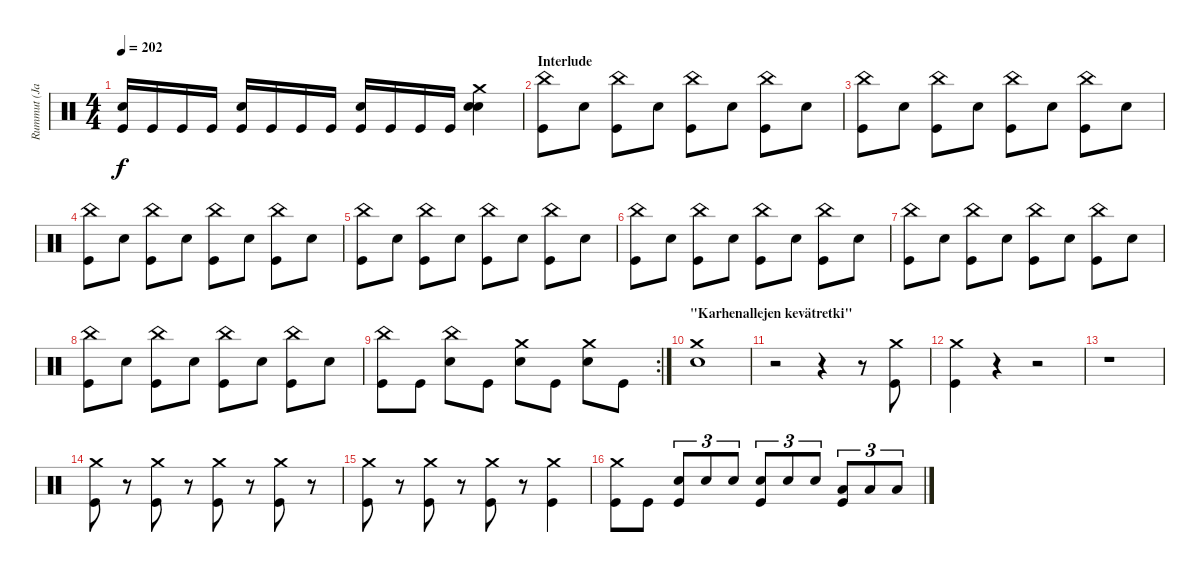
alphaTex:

\track ("Rummut (Janne)" "Rummut (Ja") {instrument percussion}
\staff {score}
\articulation defaults
\ts (4 4)
\tempo 202
\clef neutral
\ks c
("Snare (hit) 2" "Kick (hit)").16{dy f} "Kick (hit)".16 "Kick (hit)".16 "Kick (hit)".16 ("Snare (hit) 2" "Kick (hit)").16 "Kick (hit)".16 "Kick (hit)".16 "Kick (hit)".16 ("Snare (hit) 2" "Kick (hit)").16 "Kick (hit)".16 "Kick (hit)".16 "Kick (hit)".16 ("Crash medium (hit)" "Snare (hit) 2" "Snare (hit) 2").4 |
\section ("" "Interlude")
("China (hit)" "Kick (hit)").8 "Snare (hit) 2".8 ("China (hit)" "Kick (hit)").8 "Snare (hit) 2".8 ("China (hit)" "Kick (hit)").8 "Snare (hit) 2".8 ("China (hit)" "Kick (hit)").8 "Snare (hit) 2".8 |
("China (hit)" "Kick (hit)").8 "Snare (hit) 2".8 ("China (hit)" "Kick (hit)").8 "Snare (hit) 2".8 ("China (hit)" "Kick (hit)").8 "Snare (hit) 2".8 ("China (hit)" "Kick (hit)").8 "Snare (hit) 2".8 |
("China (hit)" "Kick (hit)").8 "Snare (hit) 2".8 ("China (hit)" "Kick (hit)").8 "Snare (hit) 2".8 ("China (hit)" "Kick (hit)").8 "Snare (hit) 2".8 ("China (hit)" "Kick (hit)").8 "Snare (hit) 2".8 |
("China (hit)" "Kick (hit)").8 "Snare (hit) 2".8 ("China (hit)" "Kick (hit)").8 "Snare (hit) 2".8 ("China (hit)" "Kick (hit)").8 "Snare (hit) 2".8 ("China (hit)" "Kick (hit)").8 "Snare (hit) 2".8 |
("China (hit)" "Kick (hit)").8 "Snare (hit) 2".8 ("China (hit)" "Kick (hit)").8 "Snare (hit) 2".8 ("China (hit)" "Kick (hit)").8 "Snare (hit) 2".8 ("China (hit)" "Kick (hit)").8 "Snare (hit) 2".8 |
("China (hit)" "Kick (hit)").8 "Snare (hit) 2".8 ("China (hit)" "Kick (hit)").8 "Snare (hit) 2".8 ("China (hit)" "Kick (hit)").8 "Snare (hit) 2".8 ("China (hit)" "Kick (hit)").8 "Snare (hit) 2".8 |
("China (hit)" "Kick (hit)").8 "Snare (hit) 2".8 ("China (hit)" "Kick (hit)").8 "Snare (hit) 2".8 ("China (hit)" "Kick (hit)").8 "Snare (hit) 2".8 ("China (hit)" "Kick (hit)").8 "Snare (hit) 2".8 |
\rc 2
("China (hit)" "Kick (hit)").8 "Kick (hit)".8 ("China (hit)" "Snare (hit) 2").8 "Kick (hit)".8 ("Crash medium (hit)" "Snare (hit) 2").8 "Kick (hit)".8 ("Crash medium (hit)" "Snare (hit) 2").8 "Kick (hit)".8 |
\section ("" "\"Karhenallejen kevätretki\"")
("Crash medium (hit)" "Snare (hit) 2").1 |
r.2 r.4 r.8 ("Crash medium (hit)" "Kick (hit)").8 |
("Crash medium (hit)" "Kick (hit)").4 r.4 r.2 |
r.1 |
("Crash medium (hit)" "Kick (hit)").8 r.8 ("Crash medium (hit)" "Kick (hit)").8 r.8 ("Crash medium (hit)" "Kick (hit)").8 r.8 ("Crash medium (hit)" "Kick (hit)").8 r.8 |
("Crash medium (hit)" "Kick (hit)").8 r.8 ("Crash medium (hit)" "Kick (hit)").8 r.8 ("Crash medium (hit)" "Kick (hit)").8 r.8 ("Crash medium (hit)" "Kick (hit)").4 |
("Crash medium (hit)" "Kick (hit)").8 "Kick (hit)".8 ("Snare (hit) 2" "Kick (hit)").8{tu (3 2)} "Snare (hit) 2".8{tu (3 2)} "Snare (hit) 2".8{tu (3 2)} ("Snare (hit) 2" "Kick (hit)").8{tu (3 2)} "Snare (hit) 2".8{tu (3 2)} "Snare (hit) 2".8{tu (3 2)} ("Low Tom (hit)" "Kick (hit)").8{tu (3 2)} "Low Tom (hit)".8{tu (3 2)} "Low Tom (hit)".8{tu (3 2)}
